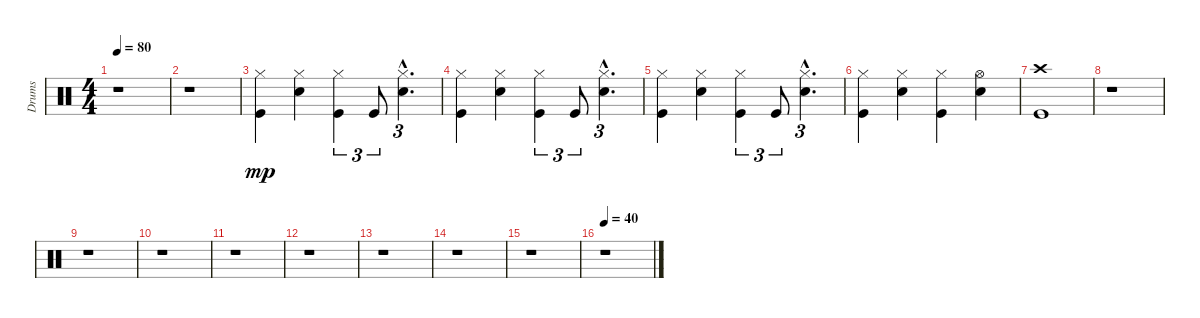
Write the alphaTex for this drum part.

\track ("Drums" "Drums") {instrument percussion}
\staff {score}
\articulation defaults
\ts (4 4)
\tempo 80
\clef neutral
\ks c
r.1{dy mp} |
r.1 |
("Hi-Hat (closed)" "Kick (hit)").4 ("Hi-Hat (closed)" "Electric Snare (hit)").4 ("Hi-Hat (closed)" "Kick (hit)").4{tu (3 2)} "Kick (hit)".8{tu (3 2)} ("Hi-Hat (closed)"{hac} "Electric Snare (hit)"{hac}).4{d tu (3 2)} |
("Hi-Hat (closed)" "Kick (hit)").4 ("Hi-Hat (closed)" "Electric Snare (hit)").4 ("Hi-Hat (closed)" "Kick (hit)").4{tu (3 2)} "Kick (hit)".8{tu (3 2)} ("Hi-Hat (closed)"{hac} "Electric Snare (hit)"{hac}).4{d tu (3 2)} |
("Hi-Hat (closed)" "Kick (hit)").4 ("Hi-Hat (closed)" "Electric Snare (hit)").4 ("Hi-Hat (closed)" "Kick (hit)").4{tu (3 2)} "Kick (hit)".8{tu (3 2)} ("Hi-Hat (closed)"{hac} "Electric Snare (hit)"{hac}).4{d tu (3 2)} |
("Hi-Hat (closed)" "Kick (hit)").4 ("Hi-Hat (closed)" "Electric Snare (hit)").4 ("Hi-Hat (closed)" "Kick (hit)").4 ("Hi-Hat (open)" "Electric Snare (hit)").4 |
("Kick (hit)" "Crash high (hit)").1 |
r.1 |
r.1 |
r.1 |
r.1 |
r.1 |
r.1 |
r.1 |
r.1 |
\tempo 40
r.1
